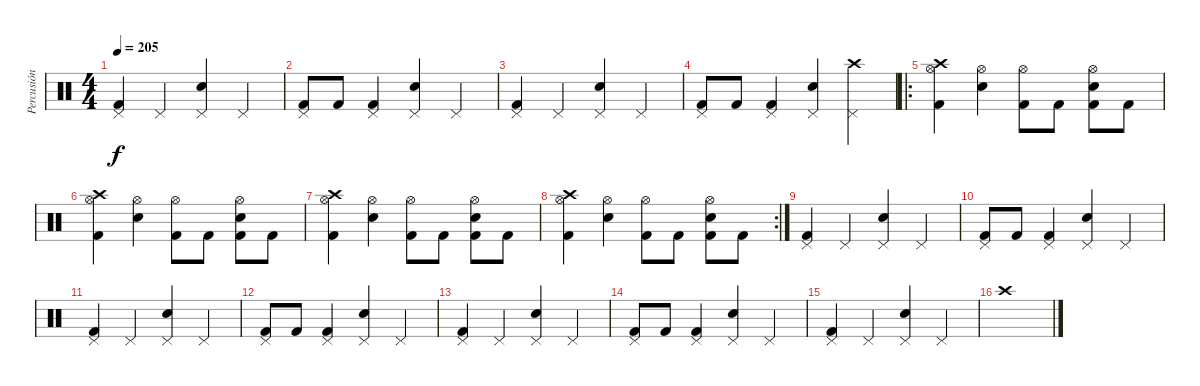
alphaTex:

\track ("Percusión" "Percusión") {instrument percussion}
\staff {score}
\articulation defaults
\ts (4 4)
\tempo 205
\clef neutral
\ks c
("Kick (hit) 2" "Pedal Hi-Hat (hit)").4{dy f} "Pedal Hi-Hat (hit)".4 ("Snare (hit) 2" "Pedal Hi-Hat (hit)").4 "Pedal Hi-Hat (hit)".4 |
("Kick (hit) 2" "Pedal Hi-Hat (hit)").8 "Kick (hit) 2".8 ("Kick (hit) 2" "Pedal Hi-Hat (hit)").4 ("Snare (hit) 2" "Pedal Hi-Hat (hit)").4 "Pedal Hi-Hat (hit)".4 |
("Kick (hit) 2" "Pedal Hi-Hat (hit)").4 "Pedal Hi-Hat (hit)".4 ("Snare (hit) 2" "Pedal Hi-Hat (hit)").4 "Pedal Hi-Hat (hit)".4 |
("Kick (hit) 2" "Pedal Hi-Hat (hit)").8 "Kick (hit) 2".8 ("Kick (hit) 2" "Pedal Hi-Hat (hit)").4 ("Snare (hit) 2" "Pedal Hi-Hat (hit)").4 ("Crash high (hit)" "Pedal Hi-Hat (hit)").4 |
\ro
("Crash high (hit)" "Kick (hit) 2" "Hi-Hat (open)").4 ("Snare (hit) 2" "Hi-Hat (open)").4 ("Kick (hit) 2" "Hi-Hat (open)").8 "Kick (hit) 2".8 ("Snare (hit) 2" "Kick (hit) 2" "Hi-Hat (open)").8 "Kick (hit) 2".8 |
("Crash high (hit)" "Kick (hit) 2" "Hi-Hat (open)").4 ("Snare (hit) 2" "Hi-Hat (open)").4 ("Kick (hit) 2" "Hi-Hat (open)").8 "Kick (hit) 2".8 ("Snare (hit) 2" "Kick (hit) 2" "Hi-Hat (open)").8 "Kick (hit) 2".8 |
("Crash high (hit)" "Kick (hit) 2" "Hi-Hat (open)").4 ("Snare (hit) 2" "Hi-Hat (open)").4 ("Kick (hit) 2" "Hi-Hat (open)").8 "Kick (hit) 2".8 ("Snare (hit) 2" "Kick (hit) 2" "Hi-Hat (open)").8 "Kick (hit) 2".8 |
\rc 2
("Crash high (hit)" "Kick (hit) 2" "Hi-Hat (open)").4 ("Snare (hit) 2" "Hi-Hat (open)").4 ("Kick (hit) 2" "Hi-Hat (open)").8 "Kick (hit) 2".8 ("Snare (hit) 2" "Kick (hit) 2" "Hi-Hat (open)").8 "Kick (hit) 2".8 |
("Kick (hit) 2" "Pedal Hi-Hat (hit)").4 "Pedal Hi-Hat (hit)".4 ("Snare (hit) 2" "Pedal Hi-Hat (hit)").4 "Pedal Hi-Hat (hit)".4 |
("Kick (hit) 2" "Pedal Hi-Hat (hit)").8 "Kick (hit) 2".8 ("Kick (hit) 2" "Pedal Hi-Hat (hit)").4 ("Snare (hit) 2" "Pedal Hi-Hat (hit)").4 "Pedal Hi-Hat (hit)".4 |
("Kick (hit) 2" "Pedal Hi-Hat (hit)").4 "Pedal Hi-Hat (hit)".4 ("Snare (hit) 2" "Pedal Hi-Hat (hit)").4 "Pedal Hi-Hat (hit)".4 |
("Kick (hit) 2" "Pedal Hi-Hat (hit)").8 "Kick (hit) 2".8 ("Kick (hit) 2" "Pedal Hi-Hat (hit)").4 ("Snare (hit) 2" "Pedal Hi-Hat (hit)").4 "Pedal Hi-Hat (hit)".4 |
("Kick (hit) 2" "Pedal Hi-Hat (hit)").4 "Pedal Hi-Hat (hit)".4 ("Snare (hit) 2" "Pedal Hi-Hat (hit)").4 "Pedal Hi-Hat (hit)".4 |
("Kick (hit) 2" "Pedal Hi-Hat (hit)").8 "Kick (hit) 2".8 ("Kick (hit) 2" "Pedal Hi-Hat (hit)").4 ("Snare (hit) 2" "Pedal Hi-Hat (hit)").4 "Pedal Hi-Hat (hit)".4 |
("Kick (hit) 2" "Pedal Hi-Hat (hit)").4 "Pedal Hi-Hat (hit)".4 ("Snare (hit) 2" "Pedal Hi-Hat (hit)").4 "Pedal Hi-Hat (hit)".4 |
"Crash high (hit)".1
